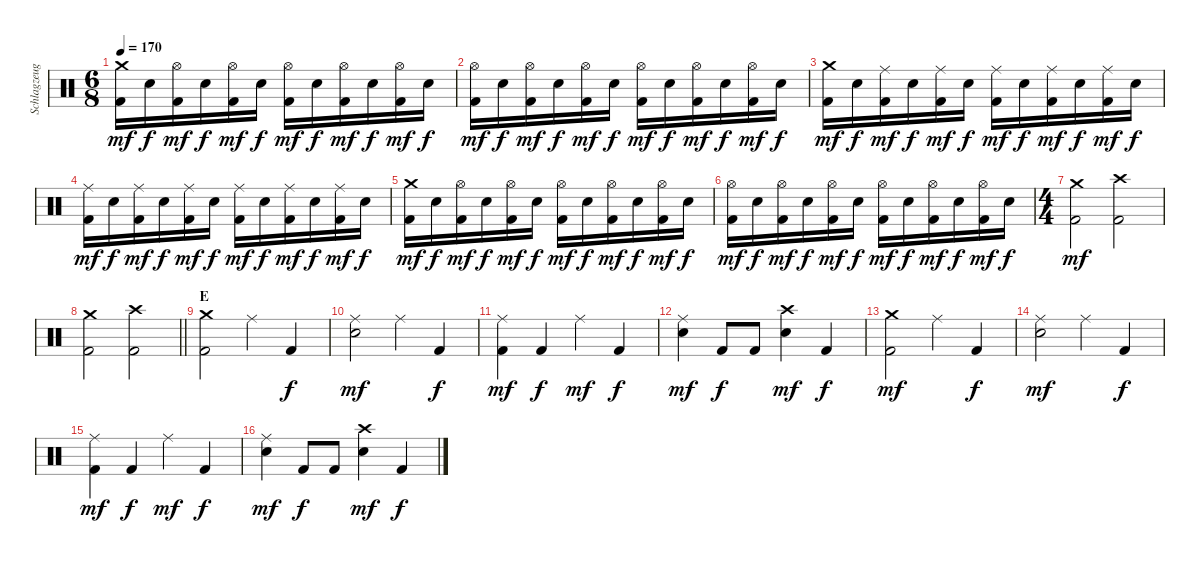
\track ("Schlagzeug" "Schlagzeug") {instrument percussion}
\staff {score}
\articulation defaults
\ts (6 8)
\tempo 170
\clef neutral
\ks c
("Crash medium (hit)" "Kick (hit) 2").16{dy mf} "Electric Snare (hit)".16{dy f} ("Hi-Hat (open)" "Kick (hit) 2").16{dy mf} "Electric Snare (hit)".16{dy f} ("Hi-Hat (open)" "Kick (hit) 2").16{dy mf} "Electric Snare (hit)".16{dy f} ("Hi-Hat (open)" "Kick (hit) 2").16{dy mf} "Electric Snare (hit)".16{dy f} ("Hi-Hat (open)" "Kick (hit) 2").16{dy mf} "Electric Snare (hit)".16{dy f} ("Hi-Hat (open)" "Kick (hit) 2").16{dy mf} "Electric Snare (hit)".16{dy f} |
("Hi-Hat (open)" "Kick (hit) 2").16{dy mf} "Electric Snare (hit)".16{dy f} ("Hi-Hat (open)" "Kick (hit) 2").16{dy mf} "Electric Snare (hit)".16{dy f} ("Hi-Hat (open)" "Kick (hit) 2").16{dy mf} "Electric Snare (hit)".16{dy f} ("Hi-Hat (open)" "Kick (hit) 2").16{dy mf} "Electric Snare (hit)".16{dy f} ("Hi-Hat (open)" "Kick (hit) 2").16{dy mf} "Electric Snare (hit)".16{dy f} ("Hi-Hat (open)" "Kick (hit) 2").16{dy mf} "Electric Snare (hit)".16{dy f} |
("Crash medium (hit)" "Kick (hit) 2").16{dy mf} "Electric Snare (hit)".16{dy f} ("Ride (middle)" "Kick (hit) 2").16{dy mf} "Electric Snare (hit)".16{dy f} ("Ride (middle)" "Kick (hit) 2").16{dy mf} "Electric Snare (hit)".16{dy f} ("Ride (middle)" "Kick (hit) 2").16{dy mf} "Electric Snare (hit)".16{dy f} ("Ride (middle)" "Kick (hit) 2").16{dy mf} "Electric Snare (hit)".16{dy f} ("Ride (middle)" "Kick (hit) 2").16{dy mf} "Electric Snare (hit)".16{dy f} |
("Ride (middle)" "Kick (hit) 2").16{dy mf} "Electric Snare (hit)".16{dy f} ("Ride (middle)" "Kick (hit) 2").16{dy mf} "Electric Snare (hit)".16{dy f} ("Ride (middle)" "Kick (hit) 2").16{dy mf} "Electric Snare (hit)".16{dy f} ("Ride (middle)" "Kick (hit) 2").16{dy mf} "Electric Snare (hit)".16{dy f} ("Ride (middle)" "Kick (hit) 2").16{dy mf} "Electric Snare (hit)".16{dy f} ("Ride (middle)" "Kick (hit) 2").16{dy mf} "Electric Snare (hit)".16{dy f} |
("Crash medium (hit)" "Kick (hit) 2").16{dy mf} "Electric Snare (hit)".16{dy f} ("Hi-Hat (open)" "Kick (hit) 2").16{dy mf} "Electric Snare (hit)".16{dy f} ("Hi-Hat (open)" "Kick (hit) 2").16{dy mf} "Electric Snare (hit)".16{dy f} ("Hi-Hat (open)" "Kick (hit) 2").16{dy mf} "Electric Snare (hit)".16{dy f} ("Hi-Hat (open)" "Kick (hit) 2").16{dy mf} "Electric Snare (hit)".16{dy f} ("Hi-Hat (open)" "Kick (hit) 2").16{dy mf} "Electric Snare (hit)".16{dy f} |
("Hi-Hat (open)" "Kick (hit) 2").16{dy mf} "Electric Snare (hit)".16{dy f} ("Hi-Hat (open)" "Kick (hit) 2").16{dy mf} "Electric Snare (hit)".16{dy f} ("Hi-Hat (open)" "Kick (hit) 2").16{dy mf} "Electric Snare (hit)".16{dy f} ("Hi-Hat (open)" "Kick (hit) 2").16{dy mf} "Electric Snare (hit)".16{dy f} ("Hi-Hat (open)" "Kick (hit) 2").16{dy mf} "Electric Snare (hit)".16{dy f} ("Hi-Hat (open)" "Kick (hit) 2").16{dy mf} "Electric Snare (hit)".16{dy f} |
\ts (4 4)
("Crash medium (hit)" "Kick (hit) 2").2{dy mf} ("Crash high (hit)" "Kick (hit) 2").2 |
\barLineRight lightlight
("Crash medium (hit)" "Kick (hit) 2").2 ("Crash high (hit)" "Kick (hit) 2").2 |
\section ("" "E")
("Crash medium (hit)" "Kick (hit) 2").2 "Ride (middle)".4 "Kick (hit) 2".4{dy f} |
("Ride (middle)" "Electric Snare (hit)").2{dy mf} "Ride (middle)".4 "Kick (hit) 2".4{dy f} |
("Ride (middle)" "Kick (hit) 2").4{dy mf} "Kick (hit) 2".4{dy f} "Ride (middle)".4{dy mf} "Kick (hit) 2".4{dy f} |
("Ride (middle)" "Electric Snare (hit)").4{dy mf} "Kick (hit) 2".8{dy f} "Kick (hit) 2".8 ("Crash high (hit)" "Electric Snare (hit)").4{dy mf} "Kick (hit) 2".4{dy f} |
("Crash medium (hit)" "Kick (hit) 2").2{dy mf} "Ride (middle)".4 "Kick (hit) 2".4{dy f} |
("Ride (middle)" "Electric Snare (hit)").2{dy mf} "Ride (middle)".4 "Kick (hit) 2".4{dy f} |
("Ride (middle)" "Kick (hit) 2").4{dy mf} "Kick (hit) 2".4{dy f} "Ride (middle)".4{dy mf} "Kick (hit) 2".4{dy f} |
("Ride (middle)" "Electric Snare (hit)").4{dy mf} "Kick (hit) 2".8{dy f} "Kick (hit) 2".8 ("Crash high (hit)" "Electric Snare (hit)").4{dy mf} "Kick (hit) 2".4{dy f}
